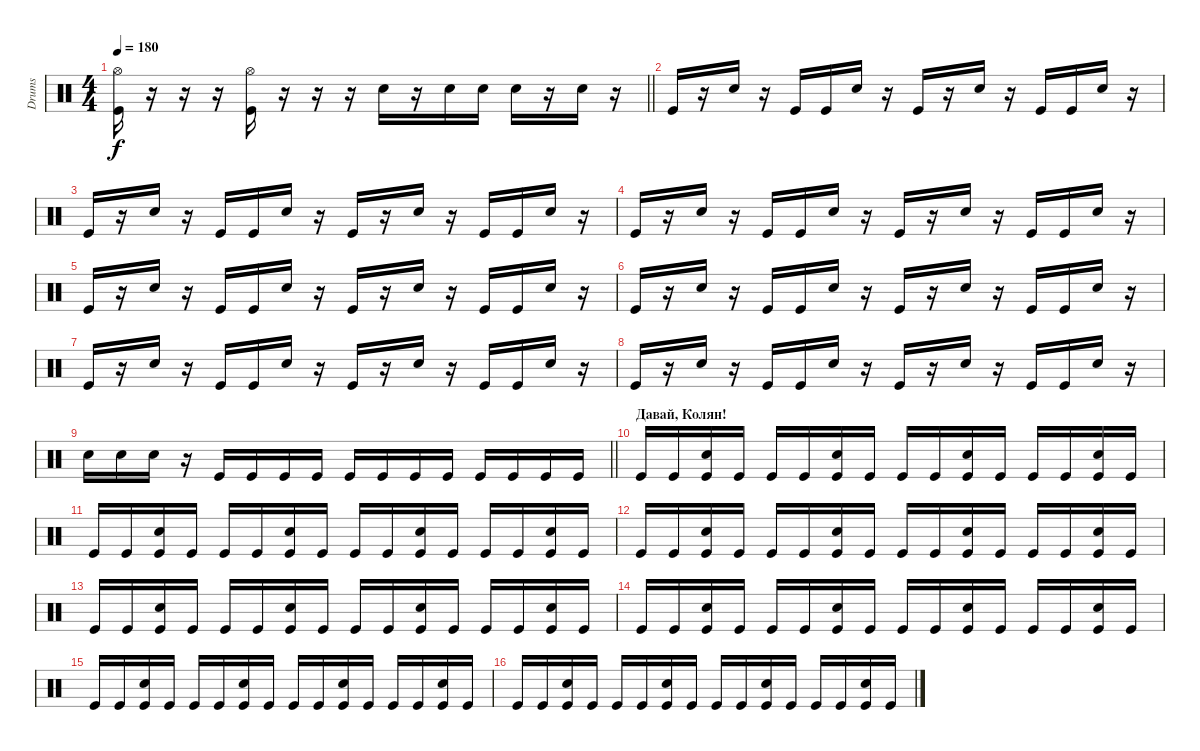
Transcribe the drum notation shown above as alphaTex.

\track ("Drums" "Drums") {instrument percussion}
\staff
\articulation defaults
\ts (4 4)
\tempo 180
\clef neutral
\barLineRight lightlight
\ks c
("Hi-Hat (open)" "Kick (hit)").16{dy f} r.16 r.16 r.16 ("Hi-Hat (open)" "Kick (hit)").16 r.16 r.16 r.16 "Snare (hit) 2".16 r.16 "Snare (hit) 2".16 "Snare (hit) 2".16 "Snare (hit) 2".16 r.16 "Snare (hit) 2".16 r.16 |
\section ("" "")
"Kick (hit)".16 r.16 "Snare (hit) 2".16 r.16 "Kick (hit)".16 "Kick (hit)".16 "Snare (hit) 2".16 r.16 "Kick (hit)".16 r.16 "Snare (hit) 2".16 r.16 "Kick (hit)".16 "Kick (hit)".16 "Snare (hit) 2".16 r.16 |
"Kick (hit)".16 r.16 "Snare (hit) 2".16 r.16 "Kick (hit)".16 "Kick (hit)".16 "Snare (hit) 2".16 r.16 "Kick (hit)".16 r.16 "Snare (hit) 2".16 r.16 "Kick (hit)".16 "Kick (hit)".16 "Snare (hit) 2".16 r.16 |
"Kick (hit)".16 r.16 "Snare (hit) 2".16 r.16 "Kick (hit)".16 "Kick (hit)".16 "Snare (hit) 2".16 r.16 "Kick (hit)".16 r.16 "Snare (hit) 2".16 r.16 "Kick (hit)".16 "Kick (hit)".16 "Snare (hit) 2".16 r.16 |
"Kick (hit)".16 r.16 "Snare (hit) 2".16 r.16 "Kick (hit)".16 "Kick (hit)".16 "Snare (hit) 2".16 r.16 "Kick (hit)".16 r.16 "Snare (hit) 2".16 r.16 "Kick (hit)".16 "Kick (hit)".16 "Snare (hit) 2".16 r.16 |
"Kick (hit)".16 r.16 "Snare (hit) 2".16 r.16 "Kick (hit)".16 "Kick (hit)".16 "Snare (hit) 2".16 r.16 "Kick (hit)".16 r.16 "Snare (hit) 2".16 r.16 "Kick (hit)".16 "Kick (hit)".16 "Snare (hit) 2".16 r.16 |
"Kick (hit)".16 r.16 "Snare (hit) 2".16 r.16 "Kick (hit)".16 "Kick (hit)".16 "Snare (hit) 2".16 r.16 "Kick (hit)".16 r.16 "Snare (hit) 2".16 r.16 "Kick (hit)".16 "Kick (hit)".16 "Snare (hit) 2".16 r.16 |
"Kick (hit)".16 r.16 "Snare (hit) 2".16 r.16 "Kick (hit)".16 "Kick (hit)".16 "Snare (hit) 2".16 r.16 "Kick (hit)".16 r.16 "Snare (hit) 2".16 r.16 "Kick (hit)".16 "Kick (hit)".16 "Snare (hit) 2".16 r.16 |
\barLineRight lightlight "Snare (hit) 2".16 "Snare (hit) 2".16 "Snare (hit) 2".16
r.16 "Kick (hit)".16 "Kick (hit)".16 "Kick (hit)".16 "Kick (hit)".16 "Kick (hit)".16 "Kick (hit)".16 "Kick (hit)".16 "Kick (hit)".16 "Kick (hit)".16 "Kick (hit)".16 "Kick (hit)".16 "Kick (hit)".16 |
\section ("" "Давай, Колян!")
"Kick (hit)".16 "Kick (hit)".16 ("Snare (hit) 2" "Kick (hit)").16 "Kick (hit)".16 "Kick (hit)".16 "Kick (hit)".16 ("Snare (hit) 2" "Kick (hit)").16 "Kick (hit)".16 "Kick (hit)".16 "Kick (hit)".16 ("Snare (hit) 2" "Kick (hit)").16 "Kick (hit)".16 "Kick (hit)".16 "Kick (hit)".16 ("Snare (hit) 2" "Kick (hit)").16 "Kick (hit)".16 |
"Kick (hit)".16 "Kick (hit)".16 ("Snare (hit) 2" "Kick (hit)").16 "Kick (hit)".16 "Kick (hit)".16 "Kick (hit)".16 ("Snare (hit) 2" "Kick (hit)").16 "Kick (hit)".16 "Kick (hit)".16 "Kick (hit)".16 ("Snare (hit) 2" "Kick (hit)").16 "Kick (hit)".16 "Kick (hit)".16 "Kick (hit)".16 ("Snare (hit) 2" "Kick (hit)").16 "Kick (hit)".16 |
"Kick (hit)".16 "Kick (hit)".16 ("Snare (hit) 2" "Kick (hit)").16 "Kick (hit)".16 "Kick (hit)".16 "Kick (hit)".16 ("Snare (hit) 2" "Kick (hit)").16 "Kick (hit)".16 "Kick (hit)".16 "Kick (hit)".16 ("Snare (hit) 2" "Kick (hit)").16 "Kick (hit)".16 "Kick (hit)".16 "Kick (hit)".16 ("Snare (hit) 2" "Kick (hit)").16 "Kick (hit)".16 |
"Kick (hit)".16 "Kick (hit)".16 ("Snare (hit) 2" "Kick (hit)").16 "Kick (hit)".16 "Kick (hit)".16 "Kick (hit)".16 ("Snare (hit) 2" "Kick (hit)").16 "Kick (hit)".16 "Kick (hit)".16 "Kick (hit)".16 ("Snare (hit) 2" "Kick (hit)").16 "Kick (hit)".16 "Kick (hit)".16 "Kick (hit)".16 ("Snare (hit) 2" "Kick (hit)").16 "Kick (hit)".16 |
"Kick (hit)".16 "Kick (hit)".16 ("Snare (hit) 2" "Kick (hit)").16 "Kick (hit)".16 "Kick (hit)".16 "Kick (hit)".16 ("Snare (hit) 2" "Kick (hit)").16 "Kick (hit)".16 "Kick (hit)".16 "Kick (hit)".16 ("Snare (hit) 2" "Kick (hit)").16 "Kick (hit)".16 "Kick (hit)".16 "Kick (hit)".16 ("Snare (hit) 2" "Kick (hit)").16 "Kick (hit)".16 |
"Kick (hit)".16 "Kick (hit)".16 ("Snare (hit) 2" "Kick (hit)").16 "Kick (hit)".16 "Kick (hit)".16 "Kick (hit)".16 ("Snare (hit) 2" "Kick (hit)").16 "Kick (hit)".16 "Kick (hit)".16 "Kick (hit)".16 ("Snare (hit) 2" "Kick (hit)").16 "Kick (hit)".16 "Kick (hit)".16 "Kick (hit)".16 ("Snare (hit) 2" "Kick (hit)").16 "Kick (hit)".16 |
"Kick (hit)".16 "Kick (hit)".16 ("Snare (hit) 2" "Kick (hit)").16 "Kick (hit)".16 "Kick (hit)".16 "Kick (hit)".16 ("Snare (hit) 2" "Kick (hit)").16 "Kick (hit)".16 "Kick (hit)".16 "Kick (hit)".16 ("Snare (hit) 2" "Kick (hit)").16 "Kick (hit)".16 "Kick (hit)".16 "Kick (hit)".16 ("Snare (hit) 2" "Kick (hit)").16 "Kick (hit)".16
